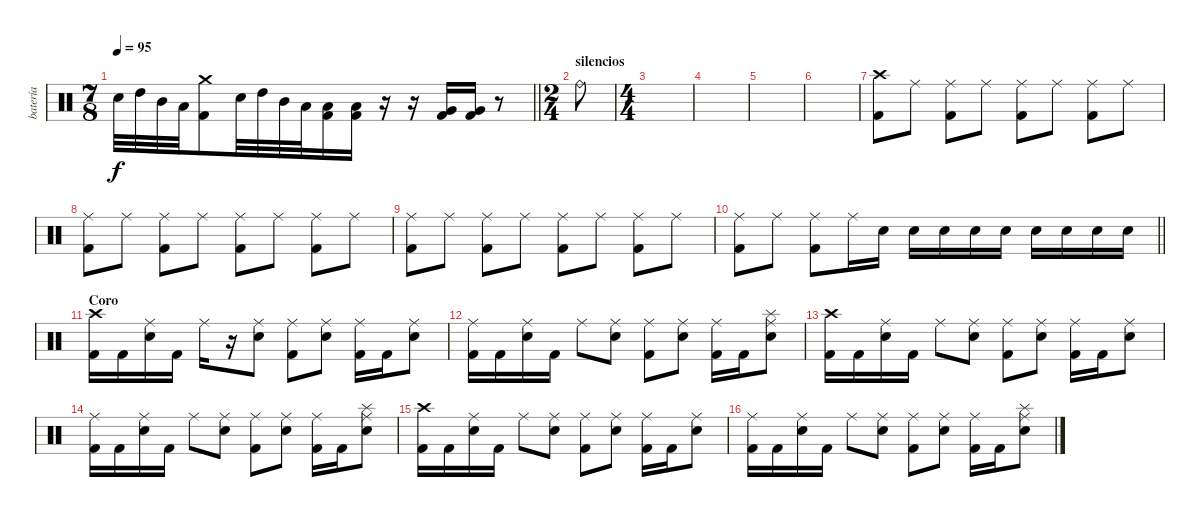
\track ("batería" "batería") {instrument percussion}
\staff {score}
\articulation defaults
\ts (7 8)
\tempo 95
\clef neutral
\barLineRight lightlight
\ks c "Electric Snare (hit)".32{dy f} "High Tom (hit)".32 "Mid Tom (hit)".32 "Low Tom (hit)".32
("Crash medium (hit)" "Kick (hit) 2").8 "Electric Snare (hit)".32 "High Tom (hit)".32 "Mid Tom (hit)".32 "Low Tom (hit)".32 ("Low Tom (hit)" "Kick (hit) 2").16 ("Low Tom (hit)" "Kick (hit) 2").16 r.16 r.16 ("Very Low Tom (hit)" "Kick (hit) 2").16 ("Very Low Tom (hit)" "Kick (hit) 2").16 r.8 |
\ts (2 4)
\section ("" "silencios")
"Ride (bell)".8 |
\ts (4 4)
|
|
|
|
("Crash high (hit)" "Kick (hit) 2").8 "Ride (middle)".8 ("Ride (middle)" "Kick (hit) 2").8 "Ride (middle)".8 ("Ride (middle)" "Kick (hit) 2").8 "Ride (middle)".8 ("Ride (middle)" "Kick (hit) 2").8 "Ride (middle)".8 |
("Ride (middle)" "Kick (hit) 2").8 "Ride (middle)".8 ("Ride (middle)" "Kick (hit) 2").8 "Ride (middle)".8 ("Ride (middle)" "Kick (hit) 2").8 "Ride (middle)".8 ("Ride (middle)" "Kick (hit) 2").8 "Ride (middle)".8 |
("Ride (middle)" "Kick (hit) 2").8 "Ride (middle)".8 ("Ride (middle)" "Kick (hit) 2").8 "Ride (middle)".8 ("Ride (middle)" "Kick (hit) 2").8 "Ride (middle)".8 ("Ride (middle)" "Kick (hit) 2").8 "Ride (middle)".8 |
\barLineRight lightlight
("Ride (middle)" "Kick (hit) 2").8 "Ride (middle)".8 ("Ride (middle)" "Kick (hit) 2").8 "Ride (middle)".16 "Electric Snare (hit)".16 "Electric Snare (hit)".16 "Electric Snare (hit)".16 "Electric Snare (hit)".16 "Electric Snare (hit)".16 "Electric Snare (hit)".16 "Electric Snare (hit)".16 "Electric Snare (hit)".16 "Electric Snare (hit)".16 |
\section ("" "Coro")
("Crash high (hit)" "Kick (hit) 2").16 "Kick (hit) 2".16 ("Ride (middle)" "Electric Snare (hit)").16 "Kick (hit) 2".16 "Ride (middle)".16 r.16 ("Ride (middle)" "Electric Snare (hit)").8 ("Ride (middle)" "Kick (hit) 2").8 ("Ride (middle)" "Electric Snare (hit)").8 ("Ride (middle)" "Kick (hit) 2").16 "Kick (hit) 2".16 ("Ride (middle)" "Electric Snare (hit)").8 |
("Ride (middle)" "Kick (hit) 2").16 "Kick (hit) 2".16 ("Ride (middle)" "Electric Snare (hit)").16 "Kick (hit) 2".16 "Ride (middle)".8 ("Ride (middle)" "Electric Snare (hit)").8 ("Ride (middle)" "Kick (hit) 2").8 ("Ride (middle)" "Electric Snare (hit)").8 ("Ride (middle)" "Kick (hit) 2").16 "Kick (hit) 2".16 ("Splash (hit)" "Ride (middle)" "Electric Snare (hit)").8 |
("Crash high (hit)" "Kick (hit) 2").16 "Kick (hit) 2".16 ("Ride (middle)" "Electric Snare (hit)").16 "Kick (hit) 2".16 "Ride (middle)".8 ("Ride (middle)" "Electric Snare (hit)").8 ("Ride (middle)" "Kick (hit) 2").8 ("Ride (middle)" "Electric Snare (hit)").8 ("Ride (middle)" "Kick (hit) 2").16 "Kick (hit) 2".16 ("Ride (middle)" "Electric Snare (hit)").8 |
("Ride (middle)" "Kick (hit) 2").16 "Kick (hit) 2".16 ("Ride (middle)" "Electric Snare (hit)").16 "Kick (hit) 2".16 "Ride (middle)".8 ("Ride (middle)" "Electric Snare (hit)").8 ("Ride (middle)" "Kick (hit) 2").8 ("Ride (middle)" "Electric Snare (hit)").8 ("Ride (middle)" "Kick (hit) 2").16 "Kick (hit) 2".16 ("Splash (hit)" "Ride (middle)" "Electric Snare (hit)").8 |
("Crash high (hit)" "Kick (hit) 2").16 "Kick (hit) 2".16 ("Ride (middle)" "Electric Snare (hit)").16 "Kick (hit) 2".16 "Ride (middle)".8 ("Ride (middle)" "Electric Snare (hit)").8 ("Ride (middle)" "Kick (hit) 2").8 ("Ride (middle)" "Electric Snare (hit)").8 ("Ride (middle)" "Kick (hit) 2").16 "Kick (hit) 2".16 ("Ride (middle)" "Electric Snare (hit)").8 |
("Ride (middle)" "Kick (hit) 2").16 "Kick (hit) 2".16 ("Ride (middle)" "Electric Snare (hit)").16 "Kick (hit) 2".16 "Ride (middle)".8 ("Ride (middle)" "Electric Snare (hit)").8 ("Ride (middle)" "Kick (hit) 2").8 ("Ride (middle)" "Electric Snare (hit)").8 ("Ride (middle)" "Kick (hit) 2").16 "Kick (hit) 2".16 ("Splash (hit)" "Ride (middle)" "Electric Snare (hit)").8
